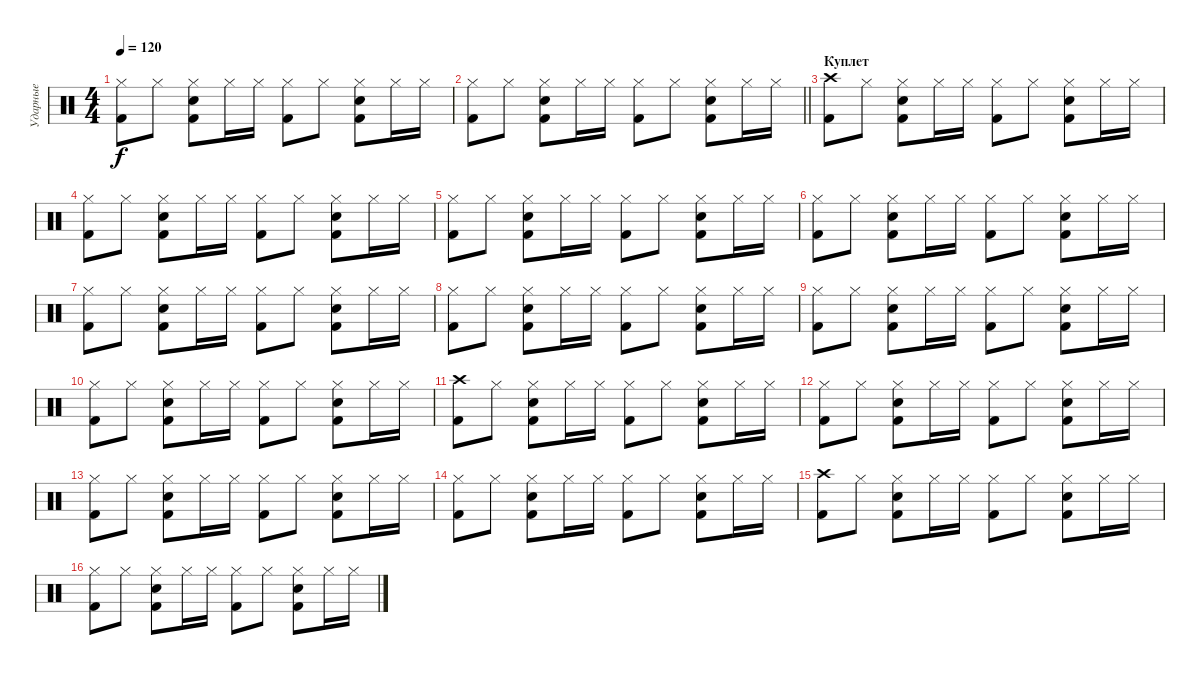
\track ("Ударные" "Ударные") {instrument percussion}
\staff {score}
\articulation defaults
\ts (4 4)
\tempo 120
\clef neutral
\ks c
("Hi-Hat (closed)" "Kick (hit) 2").8{dy f} "Hi-Hat (closed)".8 ("Hi-Hat (closed)" "Kick (hit) 2" "Electric Snare (hit)").8 "Hi-Hat (closed)".16 "Hi-Hat (closed)".16 ("Hi-Hat (closed)" "Kick (hit) 2").8 "Hi-Hat (closed)".8 ("Hi-Hat (closed)" "Kick (hit) 2" "Electric Snare (hit)").8 "Hi-Hat (closed)".16 "Hi-Hat (closed)".16 |
\barLineRight lightlight
("Hi-Hat (closed)" "Kick (hit) 2").8 "Hi-Hat (closed)".8 ("Hi-Hat (closed)" "Kick (hit) 2" "Electric Snare (hit)").8 "Hi-Hat (closed)".16 "Hi-Hat (closed)".16 ("Hi-Hat (closed)" "Kick (hit) 2").8 "Hi-Hat (closed)".8 ("Hi-Hat (closed)" "Kick (hit) 2" "Electric Snare (hit)").8 "Hi-Hat (closed)".16 "Hi-Hat (closed)".16 |
\section ("" "Куплет")
("Crash high (hit)" "Kick (hit) 2").8 "Hi-Hat (closed)".8 ("Hi-Hat (closed)" "Kick (hit) 2" "Electric Snare (hit)").8 "Hi-Hat (closed)".16 "Hi-Hat (closed)".16 ("Hi-Hat (closed)" "Kick (hit) 2").8 "Hi-Hat (closed)".8 ("Hi-Hat (closed)" "Kick (hit) 2" "Electric Snare (hit)").8 "Hi-Hat (closed)".16 "Hi-Hat (closed)".16 |
("Hi-Hat (closed)" "Kick (hit) 2").8 "Hi-Hat (closed)".8 ("Hi-Hat (closed)" "Kick (hit) 2" "Electric Snare (hit)").8 "Hi-Hat (closed)".16 "Hi-Hat (closed)".16 ("Hi-Hat (closed)" "Kick (hit) 2").8 "Hi-Hat (closed)".8 ("Hi-Hat (closed)" "Kick (hit) 2" "Electric Snare (hit)").8 "Hi-Hat (closed)".16 "Hi-Hat (closed)".16 |
("Hi-Hat (closed)" "Kick (hit) 2").8 "Hi-Hat (closed)".8 ("Hi-Hat (closed)" "Kick (hit) 2" "Electric Snare (hit)").8 "Hi-Hat (closed)".16 "Hi-Hat (closed)".16 ("Hi-Hat (closed)" "Kick (hit) 2").8 "Hi-Hat (closed)".8 ("Hi-Hat (closed)" "Kick (hit) 2" "Electric Snare (hit)").8 "Hi-Hat (closed)".16 "Hi-Hat (closed)".16 |
("Hi-Hat (closed)" "Kick (hit) 2").8 "Hi-Hat (closed)".8 ("Hi-Hat (closed)" "Kick (hit) 2" "Electric Snare (hit)").8 "Hi-Hat (closed)".16 "Hi-Hat (closed)".16 ("Hi-Hat (closed)" "Kick (hit) 2").8 "Hi-Hat (closed)".8 ("Hi-Hat (closed)" "Kick (hit) 2" "Electric Snare (hit)").8 "Hi-Hat (closed)".16 "Hi-Hat (closed)".16 |
("Hi-Hat (closed)" "Kick (hit) 2").8 "Hi-Hat (closed)".8 ("Hi-Hat (closed)" "Kick (hit) 2" "Electric Snare (hit)").8 "Hi-Hat (closed)".16 "Hi-Hat (closed)".16 ("Hi-Hat (closed)" "Kick (hit) 2").8 "Hi-Hat (closed)".8 ("Hi-Hat (closed)" "Kick (hit) 2" "Electric Snare (hit)").8 "Hi-Hat (closed)".16 "Hi-Hat (closed)".16 |
("Hi-Hat (closed)" "Kick (hit) 2").8 "Hi-Hat (closed)".8 ("Hi-Hat (closed)" "Kick (hit) 2" "Electric Snare (hit)").8 "Hi-Hat (closed)".16 "Hi-Hat (closed)".16 ("Hi-Hat (closed)" "Kick (hit) 2").8 "Hi-Hat (closed)".8 ("Hi-Hat (closed)" "Kick (hit) 2" "Electric Snare (hit)").8 "Hi-Hat (closed)".16 "Hi-Hat (closed)".16 |
("Hi-Hat (closed)" "Kick (hit) 2").8 "Hi-Hat (closed)".8 ("Hi-Hat (closed)" "Kick (hit) 2" "Electric Snare (hit)").8 "Hi-Hat (closed)".16 "Hi-Hat (closed)".16 ("Hi-Hat (closed)" "Kick (hit) 2").8 "Hi-Hat (closed)".8 ("Hi-Hat (closed)" "Kick (hit) 2" "Electric Snare (hit)").8 "Hi-Hat (closed)".16 "Hi-Hat (closed)".16 |
("Hi-Hat (closed)" "Kick (hit) 2").8 "Hi-Hat (closed)".8 ("Hi-Hat (closed)" "Kick (hit) 2" "Electric Snare (hit)").8 "Hi-Hat (closed)".16 "Hi-Hat (closed)".16 ("Hi-Hat (closed)" "Kick (hit) 2").8 "Hi-Hat (closed)".8 ("Hi-Hat (closed)" "Kick (hit) 2" "Electric Snare (hit)").8 "Hi-Hat (closed)".16 "Hi-Hat (closed)".16 |
("Crash high (hit)" "Kick (hit) 2").8 "Hi-Hat (closed)".8 ("Hi-Hat (closed)" "Kick (hit) 2" "Electric Snare (hit)").8 "Hi-Hat (closed)".16 "Hi-Hat (closed)".16 ("Hi-Hat (closed)" "Kick (hit) 2").8 "Hi-Hat (closed)".8 ("Hi-Hat (closed)" "Kick (hit) 2" "Electric Snare (hit)").8 "Hi-Hat (closed)".16 "Hi-Hat (closed)".16 |
("Hi-Hat (closed)" "Kick (hit) 2").8 "Hi-Hat (closed)".8 ("Hi-Hat (closed)" "Kick (hit) 2" "Electric Snare (hit)").8 "Hi-Hat (closed)".16 "Hi-Hat (closed)".16 ("Hi-Hat (closed)" "Kick (hit) 2").8 "Hi-Hat (closed)".8 ("Hi-Hat (closed)" "Kick (hit) 2" "Electric Snare (hit)").8 "Hi-Hat (closed)".16 "Hi-Hat (closed)".16 |
("Hi-Hat (closed)" "Kick (hit) 2").8 "Hi-Hat (closed)".8 ("Hi-Hat (closed)" "Kick (hit) 2" "Electric Snare (hit)").8 "Hi-Hat (closed)".16 "Hi-Hat (closed)".16 ("Hi-Hat (closed)" "Kick (hit) 2").8 "Hi-Hat (closed)".8 ("Hi-Hat (closed)" "Kick (hit) 2" "Electric Snare (hit)").8 "Hi-Hat (closed)".16 "Hi-Hat (closed)".16 |
("Hi-Hat (closed)" "Kick (hit) 2").8 "Hi-Hat (closed)".8 ("Hi-Hat (closed)" "Kick (hit) 2" "Electric Snare (hit)").8 "Hi-Hat (closed)".16 "Hi-Hat (closed)".16 ("Hi-Hat (closed)" "Kick (hit) 2").8 "Hi-Hat (closed)".8 ("Hi-Hat (closed)" "Kick (hit) 2" "Electric Snare (hit)").8 "Hi-Hat (closed)".16 "Hi-Hat (closed)".16 |
("Crash high (hit)" "Kick (hit) 2").8 "Hi-Hat (closed)".8 ("Hi-Hat (closed)" "Kick (hit) 2" "Electric Snare (hit)").8 "Hi-Hat (closed)".16 "Hi-Hat (closed)".16 ("Hi-Hat (closed)" "Kick (hit) 2").8 "Hi-Hat (closed)".8 ("Hi-Hat (closed)" "Kick (hit) 2" "Electric Snare (hit)").8 "Hi-Hat (closed)".16 "Hi-Hat (closed)".16 |
("Hi-Hat (closed)" "Kick (hit) 2").8 "Hi-Hat (closed)".8 ("Hi-Hat (closed)" "Kick (hit) 2" "Electric Snare (hit)").8 "Hi-Hat (closed)".16 "Hi-Hat (closed)".16 ("Hi-Hat (closed)" "Kick (hit) 2").8 "Hi-Hat (closed)".8 ("Hi-Hat (closed)" "Kick (hit) 2" "Electric Snare (hit)").8 "Hi-Hat (closed)".16 "Hi-Hat (closed)".16
